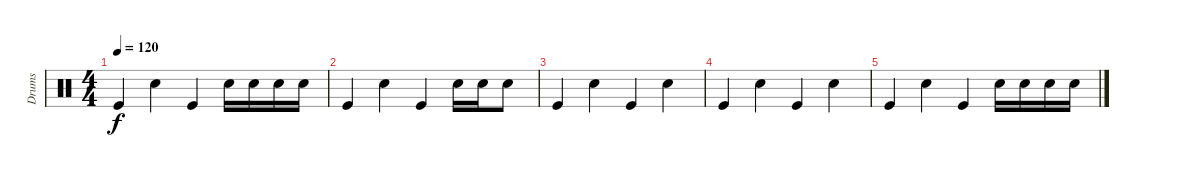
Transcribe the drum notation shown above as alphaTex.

\track ("Drums" "Drums") {instrument percussion}
\staff {score}
\articulation defaults
\ts (4 4)
\tempo 120
\clef neutral
\ks c "Kick (hit)".4{dy f} "Snare (hit) 2".4 "Kick (hit)".4 "Snare (hit) 2".16 "Snare (hit) 2".16 "Snare (hit) 2".16 "Snare (hit) 2".16
|
"Kick (hit)".4 "Snare (hit) 2".4 "Kick (hit)".4 "Snare (hit) 2".16 "Snare (hit) 2".16 "Snare (hit) 2".8 |
"Kick (hit)".4 "Snare (hit) 2".4 "Kick (hit)".4 "Snare (hit) 2".4 |
"Kick (hit)".4 "Snare (hit) 2".4 "Kick (hit)".4 "Snare (hit) 2".4 |
"Kick (hit)".4 "Snare (hit) 2".4 "Kick (hit)".4 "Snare (hit) 2".16 "Snare (hit) 2".16 "Snare (hit) 2".16 "Snare (hit) 2".16
